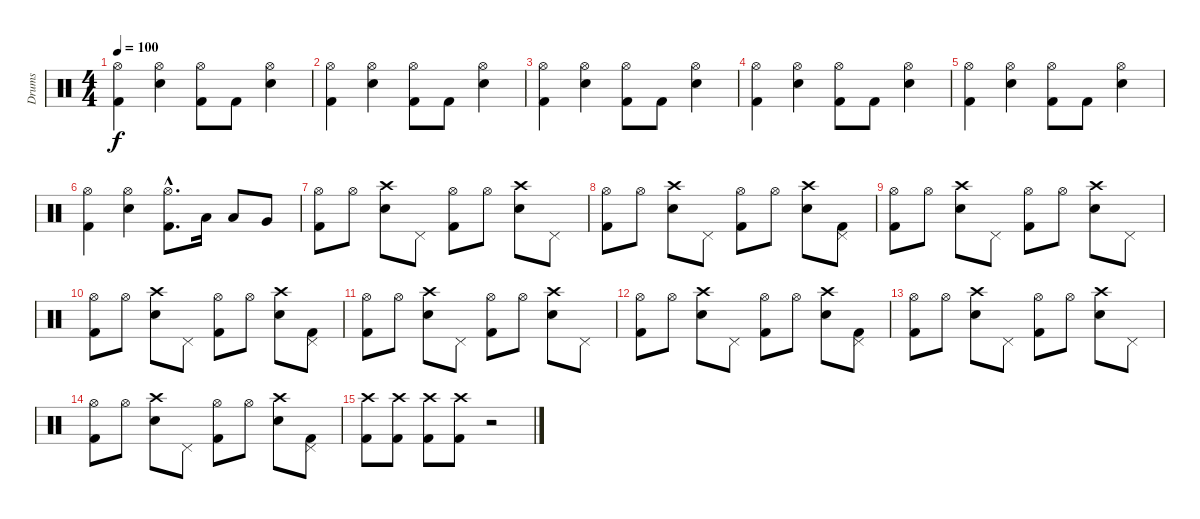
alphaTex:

\track ("Drums" "Drums") {instrument percussion}
\staff {score}
\articulation defaults
\ts (4 4)
\tempo 100
\clef neutral
\ks c
("Hi-Hat (open)" "Kick (hit) 2").4{dy f} ("Hi-Hat (open)" "Electric Snare (hit)").4 ("Hi-Hat (open)" "Kick (hit) 2").8 "Kick (hit) 2".8 ("Hi-Hat (open)" "Electric Snare (hit)").4 |
("Hi-Hat (open)" "Kick (hit) 2").4 ("Hi-Hat (open)" "Electric Snare (hit)").4 ("Hi-Hat (open)" "Kick (hit) 2").8 "Kick (hit) 2".8 ("Hi-Hat (open)" "Electric Snare (hit)").4 |
("Hi-Hat (open)" "Kick (hit) 2").4 ("Hi-Hat (open)" "Electric Snare (hit)").4 ("Hi-Hat (open)" "Kick (hit) 2").8 "Kick (hit) 2".8 ("Hi-Hat (open)" "Electric Snare (hit)").4 |
("Hi-Hat (open)" "Kick (hit) 2").4 ("Hi-Hat (open)" "Electric Snare (hit)").4 ("Hi-Hat (open)" "Kick (hit) 2").8 "Kick (hit) 2".8 ("Hi-Hat (open)" "Electric Snare (hit)").4 |
("Hi-Hat (open)" "Kick (hit) 2").4 ("Hi-Hat (open)" "Electric Snare (hit)").4 ("Hi-Hat (open)" "Kick (hit) 2").8 "Kick (hit) 2".8 ("Hi-Hat (open)" "Electric Snare (hit)").4 |
("Hi-Hat (open)" "Kick (hit) 2").4 ("Hi-Hat (open)" "Electric Snare (hit)").4 ("Hi-Hat (open)"{hac} "Kick (hit) 2"{hac}).8{d} "Low Tom (hit)".16 "Low Tom (hit)".8 "Very Low Tom (hit)".8 |
("Hi-Hat (open)" "Kick (hit) 2").8 "Hi-Hat (open)".8 ("Crash high (hit)" "Electric Snare (hit)").8 "Pedal Hi-Hat (hit)".8 ("Hi-Hat (open)" "Kick (hit) 2").8 "Hi-Hat (open)".8 ("Crash high (hit)" "Electric Snare (hit)").8 "Pedal Hi-Hat (hit)".8 |
("Hi-Hat (open)" "Kick (hit) 2").8 "Hi-Hat (open)".8 ("Crash high (hit)" "Electric Snare (hit)").8 "Pedal Hi-Hat (hit)".8 ("Hi-Hat (open)" "Kick (hit) 2").8 "Hi-Hat (open)".8 ("Crash high (hit)" "Electric Snare (hit)").8 ("Pedal Hi-Hat (hit)" "Kick (hit) 2").8 |
("Hi-Hat (open)" "Kick (hit) 2").8 "Hi-Hat (open)".8 ("Crash high (hit)" "Electric Snare (hit)").8 "Pedal Hi-Hat (hit)".8 ("Hi-Hat (open)" "Kick (hit) 2").8 "Hi-Hat (open)".8 ("Crash high (hit)" "Electric Snare (hit)").8 "Pedal Hi-Hat (hit)".8 |
("Hi-Hat (open)" "Kick (hit) 2").8 "Hi-Hat (open)".8 ("Crash high (hit)" "Electric Snare (hit)").8 "Pedal Hi-Hat (hit)".8 ("Hi-Hat (open)" "Kick (hit) 2").8 "Hi-Hat (open)".8 ("Crash high (hit)" "Electric Snare (hit)").8 ("Pedal Hi-Hat (hit)" "Kick (hit) 2").8 |
("Hi-Hat (open)" "Kick (hit) 2").8 "Hi-Hat (open)".8 ("Crash high (hit)" "Electric Snare (hit)").8 "Pedal Hi-Hat (hit)".8 ("Hi-Hat (open)" "Kick (hit) 2").8 "Hi-Hat (open)".8 ("Crash high (hit)" "Electric Snare (hit)").8 "Pedal Hi-Hat (hit)".8 |
("Hi-Hat (open)" "Kick (hit) 2").8 "Hi-Hat (open)".8 ("Crash high (hit)" "Electric Snare (hit)").8 "Pedal Hi-Hat (hit)".8 ("Hi-Hat (open)" "Kick (hit) 2").8 "Hi-Hat (open)".8 ("Crash high (hit)" "Electric Snare (hit)").8 ("Pedal Hi-Hat (hit)" "Kick (hit) 2").8 |
("Hi-Hat (open)" "Kick (hit) 2").8 "Hi-Hat (open)".8 ("Crash high (hit)" "Electric Snare (hit)").8 "Pedal Hi-Hat (hit)".8 ("Hi-Hat (open)" "Kick (hit) 2").8 "Hi-Hat (open)".8 ("Crash high (hit)" "Electric Snare (hit)").8 "Pedal Hi-Hat (hit)".8 |
("Hi-Hat (open)" "Kick (hit) 2").8 "Hi-Hat (open)".8 ("Crash high (hit)" "Electric Snare (hit)").8 "Pedal Hi-Hat (hit)".8 ("Hi-Hat (open)" "Kick (hit) 2").8 "Hi-Hat (open)".8 ("Crash high (hit)" "Electric Snare (hit)").8 ("Pedal Hi-Hat (hit)" "Kick (hit) 2").8 |
("Crash high (hit)" "Kick (hit) 2").8 ("Crash high (hit)" "Kick (hit) 2").8 ("Crash high (hit)" "Kick (hit) 2").8 ("Crash high (hit)" "Kick (hit) 2").8 r.2
